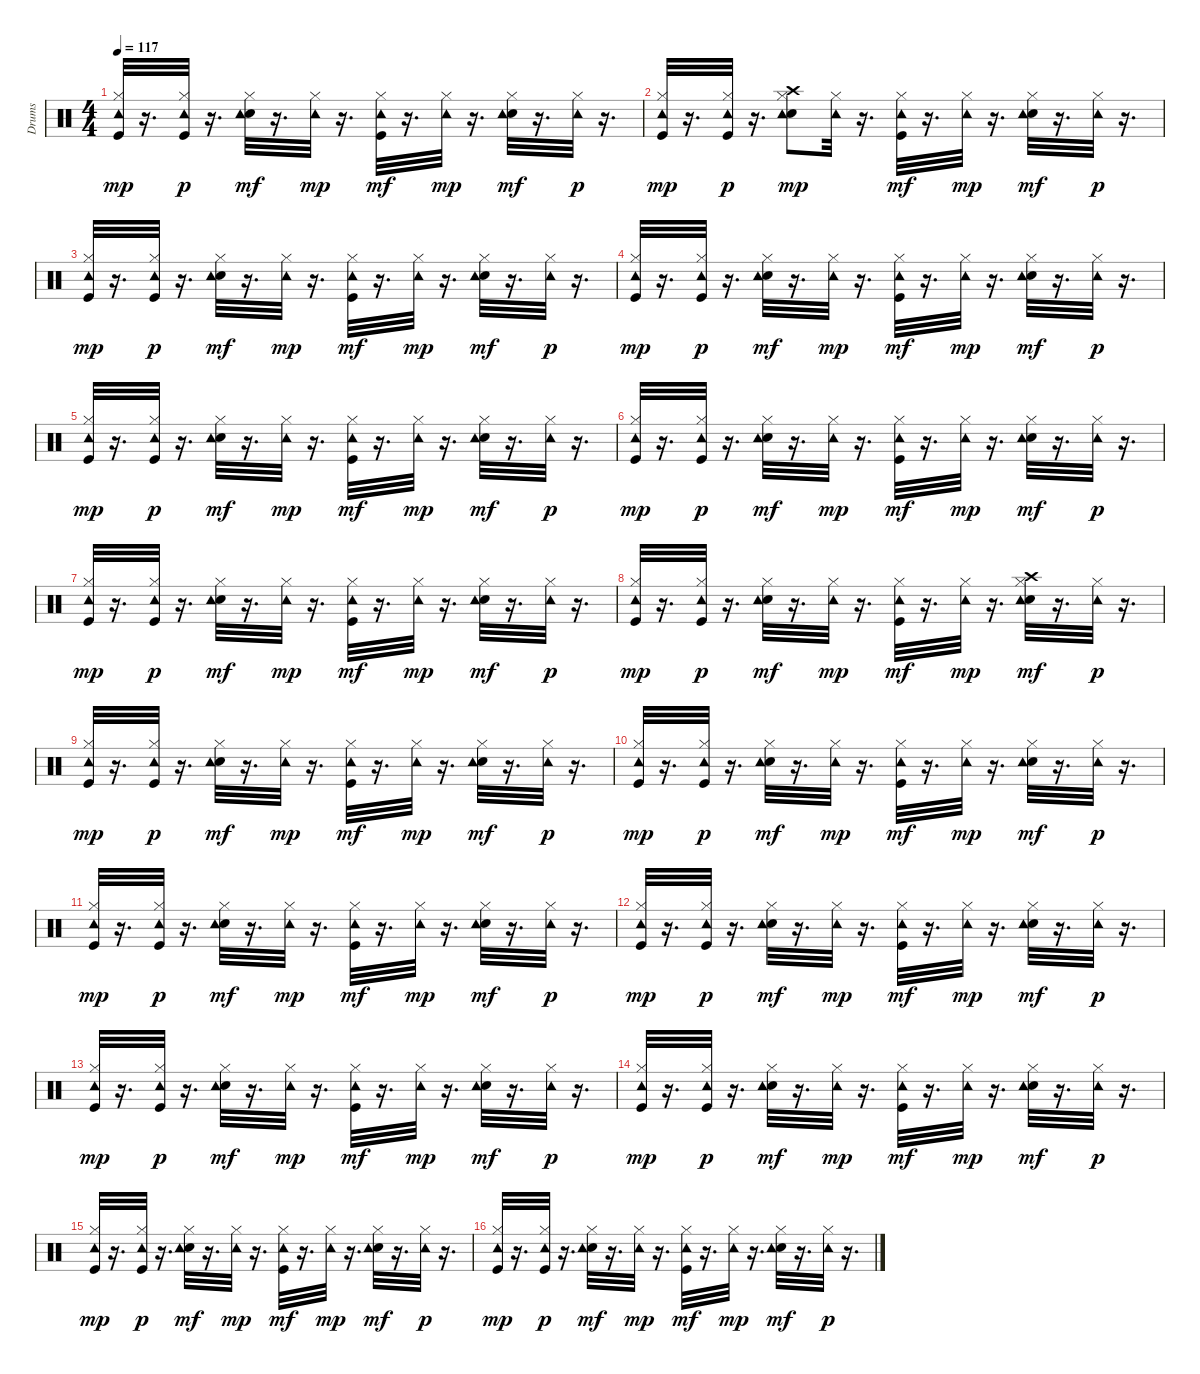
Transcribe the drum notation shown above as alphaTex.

\track ("Drums" "Drums") {instrument percussion}
\staff {score}
\articulation defaults
\ts (4 4)
\tempo 117
\clef neutral
\ks c
("Kick (hit)" "Hi-Hat (closed)" "Tambourine (hit)").32{dy mp} r.16{d} ("Kick (hit)" "Hi-Hat (closed)" "Tambourine (hit)").32{dy p} r.16{d} ("Electric Snare (hit)" "Hi-Hat (closed)" "Tambourine (hit)").32{dy mf} r.16{d} ("Hi-Hat (closed)" "Tambourine (hit)").32{dy mp} r.16{d} ("Kick (hit)" "Hi-Hat (closed)" "Tambourine (hit)").32{dy mf} r.16{d} ("Hi-Hat (closed)" "Tambourine (hit)").32{dy mp} r.16{d} ("Electric Snare (hit)" "Hi-Hat (closed)" "Tambourine (hit)").32{dy mf} r.16{d} ("Hi-Hat (closed)" "Tambourine (hit)").32{dy p} r.16{d} |
("Kick (hit)" "Hi-Hat (closed)" "Tambourine (hit)").32{dy mp} r.16{d} ("Kick (hit)" "Hi-Hat (closed)" "Tambourine (hit)").32{dy p} r.16{d} ("Electric Snare (hit)" "Hi-Hat (closed)" "Tambourine (hit)" "Crash high (hit)").8{dy mp} ("Hi-Hat (closed)" "Tambourine (hit)").32 r.16{d} ("Kick (hit)" "Hi-Hat (closed)" "Tambourine (hit)").32{dy mf} r.16{d} ("Hi-Hat (closed)" "Tambourine (hit)").32{dy mp} r.16{d} ("Electric Snare (hit)" "Hi-Hat (closed)" "Tambourine (hit)").32{dy mf} r.16{d} ("Hi-Hat (closed)" "Tambourine (hit)").32{dy p} r.16{d} |
("Kick (hit)" "Hi-Hat (closed)" "Tambourine (hit)").32{dy mp} r.16{d} ("Kick (hit)" "Hi-Hat (closed)" "Tambourine (hit)").32{dy p} r.16{d} ("Electric Snare (hit)" "Hi-Hat (closed)" "Tambourine (hit)").32{dy mf} r.16{d} ("Hi-Hat (closed)" "Tambourine (hit)").32{dy mp} r.16{d} ("Kick (hit)" "Hi-Hat (closed)" "Tambourine (hit)").32{dy mf} r.16{d} ("Hi-Hat (closed)" "Tambourine (hit)").32{dy mp} r.16{d} ("Electric Snare (hit)" "Hi-Hat (closed)" "Tambourine (hit)").32{dy mf} r.16{d} ("Hi-Hat (closed)" "Tambourine (hit)").32{dy p} r.16{d} |
("Kick (hit)" "Hi-Hat (closed)" "Tambourine (hit)").32{dy mp} r.16{d} ("Kick (hit)" "Hi-Hat (closed)" "Tambourine (hit)").32{dy p} r.16{d} ("Electric Snare (hit)" "Hi-Hat (closed)" "Tambourine (hit)").32{dy mf} r.16{d} ("Hi-Hat (closed)" "Tambourine (hit)").32{dy mp} r.16{d} ("Kick (hit)" "Hi-Hat (closed)" "Tambourine (hit)").32{dy mf} r.16{d} ("Hi-Hat (closed)" "Tambourine (hit)").32{dy mp} r.16{d} ("Electric Snare (hit)" "Hi-Hat (closed)" "Tambourine (hit)").32{dy mf} r.16{d} ("Hi-Hat (closed)" "Tambourine (hit)").32{dy p} r.16{d} |
("Kick (hit)" "Hi-Hat (closed)" "Tambourine (hit)").32{dy mp} r.16{d} ("Kick (hit)" "Hi-Hat (closed)" "Tambourine (hit)").32{dy p} r.16{d} ("Electric Snare (hit)" "Hi-Hat (closed)" "Tambourine (hit)").32{dy mf} r.16{d} ("Hi-Hat (closed)" "Tambourine (hit)").32{dy mp} r.16{d} ("Kick (hit)" "Hi-Hat (closed)" "Tambourine (hit)").32{dy mf} r.16{d} ("Hi-Hat (closed)" "Tambourine (hit)").32{dy mp} r.16{d} ("Electric Snare (hit)" "Hi-Hat (closed)" "Tambourine (hit)").32{dy mf} r.16{d} ("Hi-Hat (closed)" "Tambourine (hit)").32{dy p} r.16{d} |
("Kick (hit)" "Hi-Hat (closed)" "Tambourine (hit)").32{dy mp} r.16{d} ("Kick (hit)" "Hi-Hat (closed)" "Tambourine (hit)").32{dy p} r.16{d} ("Electric Snare (hit)" "Hi-Hat (closed)" "Tambourine (hit)").32{dy mf} r.16{d} ("Hi-Hat (closed)" "Tambourine (hit)").32{dy mp} r.16{d} ("Kick (hit)" "Hi-Hat (closed)" "Tambourine (hit)").32{dy mf} r.16{d} ("Hi-Hat (closed)" "Tambourine (hit)").32{dy mp} r.16{d} ("Electric Snare (hit)" "Hi-Hat (closed)" "Tambourine (hit)").32{dy mf} r.16{d} ("Hi-Hat (closed)" "Tambourine (hit)").32{dy p} r.16{d} |
("Kick (hit)" "Hi-Hat (closed)" "Tambourine (hit)").32{dy mp} r.16{d} ("Kick (hit)" "Hi-Hat (closed)" "Tambourine (hit)").32{dy p} r.16{d} ("Electric Snare (hit)" "Hi-Hat (closed)" "Tambourine (hit)").32{dy mf} r.16{d} ("Hi-Hat (closed)" "Tambourine (hit)").32{dy mp} r.16{d} ("Kick (hit)" "Hi-Hat (closed)" "Tambourine (hit)").32{dy mf} r.16{d} ("Hi-Hat (closed)" "Tambourine (hit)").32{dy mp} r.16{d} ("Electric Snare (hit)" "Hi-Hat (closed)" "Tambourine (hit)").32{dy mf} r.16{d} ("Hi-Hat (closed)" "Tambourine (hit)").32{dy p} r.16{d} |
("Kick (hit)" "Hi-Hat (closed)" "Tambourine (hit)").32{dy mp} r.16{d} ("Kick (hit)" "Hi-Hat (closed)" "Tambourine (hit)").32{dy p} r.16{d} ("Electric Snare (hit)" "Hi-Hat (closed)" "Tambourine (hit)").32{dy mf} r.16{d} ("Hi-Hat (closed)" "Tambourine (hit)").32{dy mp} r.16{d} ("Kick (hit)" "Hi-Hat (closed)" "Tambourine (hit)").32{dy mf} r.16{d} ("Hi-Hat (closed)" "Tambourine (hit)").32{dy mp} r.16{d} ("Electric Snare (hit)" "Hi-Hat (closed)" "Tambourine (hit)" "Crash high (hit)").32{dy mf} r.16{d} ("Hi-Hat (closed)" "Tambourine (hit)").32{dy p} r.16{d} |
("Kick (hit)" "Hi-Hat (closed)" "Tambourine (hit)").32{dy mp} r.16{d} ("Kick (hit)" "Hi-Hat (closed)" "Tambourine (hit)").32{dy p} r.16{d} ("Electric Snare (hit)" "Hi-Hat (closed)" "Tambourine (hit)").32{dy mf} r.16{d} ("Hi-Hat (closed)" "Tambourine (hit)").32{dy mp} r.16{d} ("Kick (hit)" "Hi-Hat (closed)" "Tambourine (hit)").32{dy mf} r.16{d} ("Hi-Hat (closed)" "Tambourine (hit)").32{dy mp} r.16{d} ("Electric Snare (hit)" "Hi-Hat (closed)" "Tambourine (hit)").32{dy mf} r.16{d} ("Hi-Hat (closed)" "Tambourine (hit)").32{dy p} r.16{d} |
("Kick (hit)" "Hi-Hat (closed)" "Tambourine (hit)").32{dy mp} r.16{d} ("Kick (hit)" "Hi-Hat (closed)" "Tambourine (hit)").32{dy p} r.16{d} ("Electric Snare (hit)" "Hi-Hat (closed)" "Tambourine (hit)").32{dy mf} r.16{d} ("Hi-Hat (closed)" "Tambourine (hit)").32{dy mp} r.16{d} ("Kick (hit)" "Hi-Hat (closed)" "Tambourine (hit)").32{dy mf} r.16{d} ("Hi-Hat (closed)" "Tambourine (hit)").32{dy mp} r.16{d} ("Electric Snare (hit)" "Hi-Hat (closed)" "Tambourine (hit)").32{dy mf} r.16{d} ("Hi-Hat (closed)" "Tambourine (hit)").32{dy p} r.16{d} |
("Kick (hit)" "Hi-Hat (closed)" "Tambourine (hit)").32{dy mp} r.16{d} ("Kick (hit)" "Hi-Hat (closed)" "Tambourine (hit)").32{dy p} r.16{d} ("Electric Snare (hit)" "Hi-Hat (closed)" "Tambourine (hit)").32{dy mf} r.16{d} ("Hi-Hat (closed)" "Tambourine (hit)").32{dy mp} r.16{d} ("Kick (hit)" "Hi-Hat (closed)" "Tambourine (hit)").32{dy mf} r.16{d} ("Hi-Hat (closed)" "Tambourine (hit)").32{dy mp} r.16{d} ("Electric Snare (hit)" "Hi-Hat (closed)" "Tambourine (hit)").32{dy mf} r.16{d} ("Hi-Hat (closed)" "Tambourine (hit)").32{dy p} r.16{d} |
("Kick (hit)" "Hi-Hat (closed)" "Tambourine (hit)").32{dy mp} r.16{d} ("Kick (hit)" "Hi-Hat (closed)" "Tambourine (hit)").32{dy p} r.16{d} ("Electric Snare (hit)" "Hi-Hat (closed)" "Tambourine (hit)").32{dy mf} r.16{d} ("Hi-Hat (closed)" "Tambourine (hit)").32{dy mp} r.16{d} ("Kick (hit)" "Hi-Hat (closed)" "Tambourine (hit)").32{dy mf} r.16{d} ("Hi-Hat (closed)" "Tambourine (hit)").32{dy mp} r.16{d} ("Electric Snare (hit)" "Hi-Hat (closed)" "Tambourine (hit)").32{dy mf} r.16{d} ("Hi-Hat (closed)" "Tambourine (hit)").32{dy p} r.16{d} |
("Kick (hit)" "Hi-Hat (closed)" "Tambourine (hit)").32{dy mp} r.16{d} ("Kick (hit)" "Hi-Hat (closed)" "Tambourine (hit)").32{dy p} r.16{d} ("Electric Snare (hit)" "Hi-Hat (closed)" "Tambourine (hit)").32{dy mf} r.16{d} ("Hi-Hat (closed)" "Tambourine (hit)").32{dy mp} r.16{d} ("Kick (hit)" "Hi-Hat (closed)" "Tambourine (hit)").32{dy mf} r.16{d} ("Hi-Hat (closed)" "Tambourine (hit)").32{dy mp} r.16{d} ("Electric Snare (hit)" "Hi-Hat (closed)" "Tambourine (hit)").32{dy mf} r.16{d} ("Hi-Hat (closed)" "Tambourine (hit)").32{dy p} r.16{d} |
("Kick (hit)" "Hi-Hat (closed)" "Tambourine (hit)").32{dy mp} r.16{d} ("Kick (hit)" "Hi-Hat (closed)" "Tambourine (hit)").32{dy p} r.16{d} ("Electric Snare (hit)" "Hi-Hat (closed)" "Tambourine (hit)").32{dy mf} r.16{d} ("Hi-Hat (closed)" "Tambourine (hit)").32{dy mp} r.16{d} ("Kick (hit)" "Hi-Hat (closed)" "Tambourine (hit)").32{dy mf} r.16{d} ("Hi-Hat (closed)" "Tambourine (hit)").32{dy mp} r.16{d} ("Electric Snare (hit)" "Hi-Hat (closed)" "Tambourine (hit)").32{dy mf} r.16{d} ("Hi-Hat (closed)" "Tambourine (hit)").32{dy p} r.16{d} |
("Kick (hit)" "Hi-Hat (closed)" "Tambourine (hit)").32{dy mp} r.16{d} ("Kick (hit)" "Hi-Hat (closed)" "Tambourine (hit)").32{dy p} r.16{d} ("Electric Snare (hit)" "Hi-Hat (closed)" "Tambourine (hit)").32{dy mf} r.16{d} ("Hi-Hat (closed)" "Tambourine (hit)").32{dy mp} r.16{d} ("Kick (hit)" "Hi-Hat (closed)" "Tambourine (hit)").32{dy mf} r.16{d} ("Hi-Hat (closed)" "Tambourine (hit)").32{dy mp} r.16{d} ("Electric Snare (hit)" "Hi-Hat (closed)" "Tambourine (hit)").32{dy mf} r.16{d} ("Hi-Hat (closed)" "Tambourine (hit)").32{dy p} r.16{d} |
("Kick (hit)" "Hi-Hat (closed)" "Tambourine (hit)").32{dy mp} r.16{d} ("Kick (hit)" "Hi-Hat (closed)" "Tambourine (hit)").32{dy p} r.16{d} ("Electric Snare (hit)" "Hi-Hat (closed)" "Tambourine (hit)").32{dy mf} r.16{d} ("Hi-Hat (closed)" "Tambourine (hit)").32{dy mp} r.16{d} ("Kick (hit)" "Hi-Hat (closed)" "Tambourine (hit)").32{dy mf} r.16{d} ("Hi-Hat (closed)" "Tambourine (hit)").32{dy mp} r.16{d} ("Electric Snare (hit)" "Hi-Hat (closed)" "Tambourine (hit)").32{dy mf} r.16{d} ("Hi-Hat (closed)" "Tambourine (hit)").32{dy p} r.16{d}
